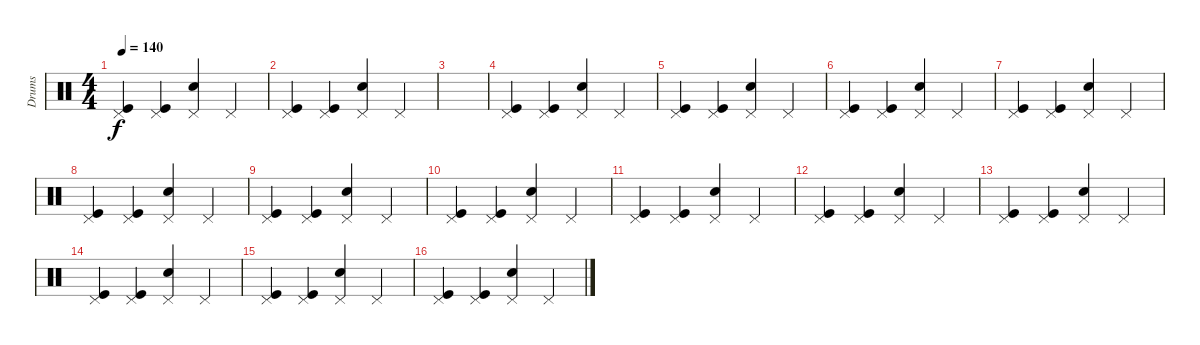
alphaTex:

\track ("Drums" "Drums") {instrument percussion}
\staff {score}
\articulation defaults
\ts (4 4)
\tempo 140
\clef neutral
\ks c
("Kick (hit)" "Pedal Hi-Hat (hit)").4{dy f} ("Kick (hit)" "Pedal Hi-Hat (hit)").4 ("Snare (hit) 2" "Pedal Hi-Hat (hit)").4 "Pedal Hi-Hat (hit)".4 |
("Kick (hit)" "Pedal Hi-Hat (hit)").4 ("Kick (hit)" "Pedal Hi-Hat (hit)").4 ("Snare (hit) 2" "Pedal Hi-Hat (hit)").4 "Pedal Hi-Hat (hit)".4 |
|
("Kick (hit)" "Pedal Hi-Hat (hit)").4 ("Kick (hit)" "Pedal Hi-Hat (hit)").4 ("Snare (hit) 2" "Pedal Hi-Hat (hit)").4 "Pedal Hi-Hat (hit)".4 |
("Kick (hit)" "Pedal Hi-Hat (hit)").4 ("Kick (hit)" "Pedal Hi-Hat (hit)").4 ("Snare (hit) 2" "Pedal Hi-Hat (hit)").4 "Pedal Hi-Hat (hit)".4 |
("Kick (hit)" "Pedal Hi-Hat (hit)").4 ("Kick (hit)" "Pedal Hi-Hat (hit)").4 ("Snare (hit) 2" "Pedal Hi-Hat (hit)").4 "Pedal Hi-Hat (hit)".4 |
("Kick (hit)" "Pedal Hi-Hat (hit)").4 ("Kick (hit)" "Pedal Hi-Hat (hit)").4 ("Snare (hit) 2" "Pedal Hi-Hat (hit)").4 "Pedal Hi-Hat (hit)".4 |
("Kick (hit)" "Pedal Hi-Hat (hit)").4 ("Kick (hit)" "Pedal Hi-Hat (hit)").4 ("Snare (hit) 2" "Pedal Hi-Hat (hit)").4 "Pedal Hi-Hat (hit)".4 |
("Kick (hit)" "Pedal Hi-Hat (hit)").4 ("Kick (hit)" "Pedal Hi-Hat (hit)").4 ("Snare (hit) 2" "Pedal Hi-Hat (hit)").4 "Pedal Hi-Hat (hit)".4 |
("Kick (hit)" "Pedal Hi-Hat (hit)").4 ("Kick (hit)" "Pedal Hi-Hat (hit)").4 ("Snare (hit) 2" "Pedal Hi-Hat (hit)").4 "Pedal Hi-Hat (hit)".4 |
("Kick (hit)" "Pedal Hi-Hat (hit)").4 ("Kick (hit)" "Pedal Hi-Hat (hit)").4 ("Snare (hit) 2" "Pedal Hi-Hat (hit)").4 "Pedal Hi-Hat (hit)".4 |
("Kick (hit)" "Pedal Hi-Hat (hit)").4 ("Kick (hit)" "Pedal Hi-Hat (hit)").4 ("Snare (hit) 2" "Pedal Hi-Hat (hit)").4 "Pedal Hi-Hat (hit)".4 |
("Kick (hit)" "Pedal Hi-Hat (hit)").4 ("Kick (hit)" "Pedal Hi-Hat (hit)").4 ("Snare (hit) 2" "Pedal Hi-Hat (hit)").4 "Pedal Hi-Hat (hit)".4 |
("Kick (hit)" "Pedal Hi-Hat (hit)").4 ("Kick (hit)" "Pedal Hi-Hat (hit)").4 ("Snare (hit) 2" "Pedal Hi-Hat (hit)").4 "Pedal Hi-Hat (hit)".4 |
("Kick (hit)" "Pedal Hi-Hat (hit)").4 ("Kick (hit)" "Pedal Hi-Hat (hit)").4 ("Snare (hit) 2" "Pedal Hi-Hat (hit)").4 "Pedal Hi-Hat (hit)".4 |
("Kick (hit)" "Pedal Hi-Hat (hit)").4 ("Kick (hit)" "Pedal Hi-Hat (hit)").4 ("Snare (hit) 2" "Pedal Hi-Hat (hit)").4 "Pedal Hi-Hat (hit)".4
